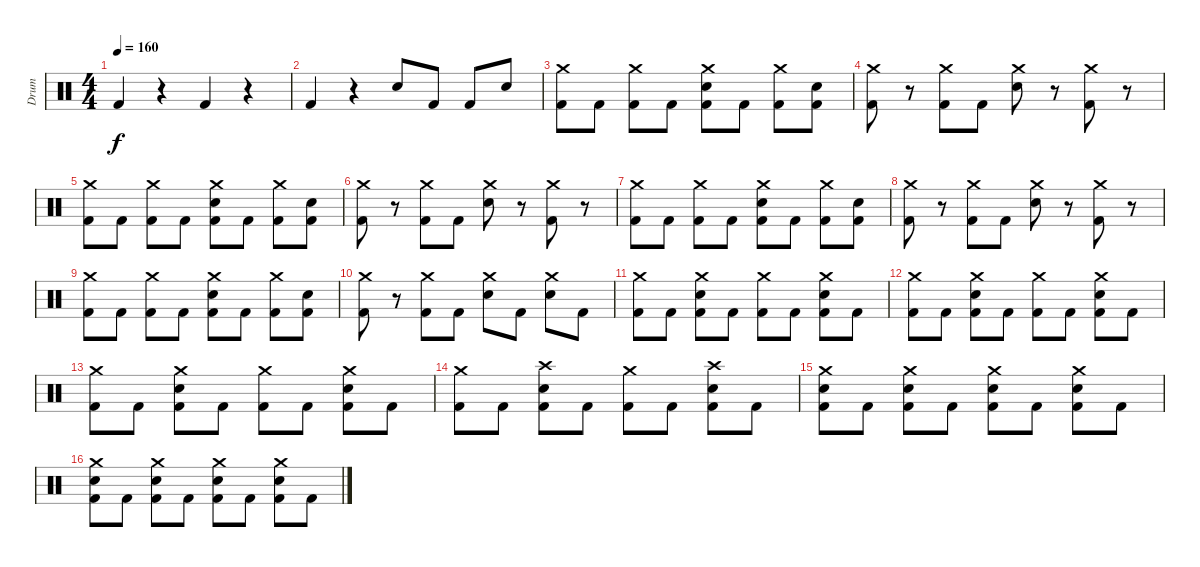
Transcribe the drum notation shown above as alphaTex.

\track ("Drum" "Drum") {instrument percussion}
\staff {score}
\articulation defaults
\ts (4 4)
\tempo 160
\clef neutral
\ks c "Kick (hit) 2".4{dy f}
r.4 "Kick (hit) 2".4 r.4 |
"Kick (hit) 2".4 r.4 "Electric Snare (hit)".8 "Kick (hit) 2".8 "Kick (hit) 2".8 "Electric Snare (hit)".8 |
("Crash medium (hit)" "Kick (hit) 2").8 "Kick (hit) 2".8 ("Crash medium (hit)" "Kick (hit) 2").8 "Kick (hit) 2".8 ("Crash medium (hit)" "Electric Snare (hit)" "Kick (hit) 2").8 "Kick (hit) 2".8 ("Crash medium (hit)" "Kick (hit) 2").8 ("Electric Snare (hit)" "Kick (hit) 2").8 |
("Crash medium (hit)" "Kick (hit) 2").8 r.8 ("Crash medium (hit)" "Kick (hit) 2").8 "Kick (hit) 2".8 ("Crash medium (hit)" "Electric Snare (hit)").8 r.8 ("Crash medium (hit)" "Kick (hit) 2").8 r.8 |
("Crash medium (hit)" "Kick (hit) 2").8 "Kick (hit) 2".8 ("Crash medium (hit)" "Kick (hit) 2").8 "Kick (hit) 2".8 ("Crash medium (hit)" "Electric Snare (hit)" "Kick (hit) 2").8 "Kick (hit) 2".8 ("Crash medium (hit)" "Kick (hit) 2").8 ("Electric Snare (hit)" "Kick (hit) 2").8 |
("Crash medium (hit)" "Kick (hit) 2").8 r.8 ("Crash medium (hit)" "Kick (hit) 2").8 "Kick (hit) 2".8 ("Crash medium (hit)" "Electric Snare (hit)").8 r.8 ("Crash medium (hit)" "Kick (hit) 2").8 r.8 |
("Crash medium (hit)" "Kick (hit) 2").8 "Kick (hit) 2".8 ("Crash medium (hit)" "Kick (hit) 2").8 "Kick (hit) 2".8 ("Crash medium (hit)" "Electric Snare (hit)" "Kick (hit) 2").8 "Kick (hit) 2".8 ("Crash medium (hit)" "Kick (hit) 2").8 ("Electric Snare (hit)" "Kick (hit) 2").8 |
("Crash medium (hit)" "Kick (hit) 2").8 r.8 ("Crash medium (hit)" "Kick (hit) 2").8 "Kick (hit) 2".8 ("Crash medium (hit)" "Electric Snare (hit)").8 r.8 ("Crash medium (hit)" "Kick (hit) 2").8 r.8 |
("Crash medium (hit)" "Kick (hit) 2").8 "Kick (hit) 2".8 ("Crash medium (hit)" "Kick (hit) 2").8 "Kick (hit) 2".8 ("Crash medium (hit)" "Electric Snare (hit)" "Kick (hit) 2").8 "Kick (hit) 2".8 ("Crash medium (hit)" "Kick (hit) 2").8 ("Electric Snare (hit)" "Kick (hit) 2").8 |
("Crash medium (hit)" "Kick (hit) 2").8 r.8 ("Crash medium (hit)" "Kick (hit) 2").8 "Kick (hit) 2".8 ("Crash medium (hit)" "Electric Snare (hit)").8 "Kick (hit) 2".8 ("Crash medium (hit)" "Electric Snare (hit)").8 "Kick (hit) 2".8 |
("Crash medium (hit)" "Kick (hit) 2").8 "Kick (hit) 2".8 ("Crash medium (hit)" "Electric Snare (hit)" "Kick (hit) 2").8 "Kick (hit) 2".8 ("Crash medium (hit)" "Kick (hit) 2").8 "Kick (hit) 2".8 ("Crash medium (hit)" "Electric Snare (hit)" "Kick (hit) 2").8 "Kick (hit) 2".8 |
("Crash medium (hit)" "Kick (hit) 2").8 "Kick (hit) 2".8 ("Crash medium (hit)" "Electric Snare (hit)" "Kick (hit) 2").8 "Kick (hit) 2".8 ("Crash medium (hit)" "Kick (hit) 2").8 "Kick (hit) 2".8 ("Crash medium (hit)" "Electric Snare (hit)" "Kick (hit) 2").8 "Kick (hit) 2".8 |
("Crash medium (hit)" "Kick (hit) 2").8 "Kick (hit) 2".8 ("Crash medium (hit)" "Electric Snare (hit)" "Kick (hit) 2").8 "Kick (hit) 2".8 ("Crash medium (hit)" "Kick (hit) 2").8 "Kick (hit) 2".8 ("Crash medium (hit)" "Electric Snare (hit)" "Kick (hit) 2").8 "Kick (hit) 2".8 |
("Crash medium (hit)" "Kick (hit) 2").8 "Kick (hit) 2".8 ("Crash high (hit)" "Electric Snare (hit)" "Kick (hit) 2").8 "Kick (hit) 2".8 ("Crash medium (hit)" "Kick (hit) 2").8 "Kick (hit) 2".8 ("Crash high (hit)" "Electric Snare (hit)" "Kick (hit) 2").8 "Kick (hit) 2".8 |
("Crash medium (hit)" "Electric Snare (hit)" "Kick (hit) 2").8 "Kick (hit) 2".8 ("Crash medium (hit)" "Electric Snare (hit)" "Kick (hit) 2").8 "Kick (hit) 2".8 ("Crash medium (hit)" "Electric Snare (hit)" "Kick (hit) 2").8 "Kick (hit) 2".8 ("Crash medium (hit)" "Electric Snare (hit)" "Kick (hit) 2").8 "Kick (hit) 2".8 |
("Crash medium (hit)" "Electric Snare (hit)" "Kick (hit) 2").8 "Kick (hit) 2".8 ("Crash medium (hit)" "Electric Snare (hit)" "Kick (hit) 2").8 "Kick (hit) 2".8 ("Crash medium (hit)" "Electric Snare (hit)" "Kick (hit) 2").8 "Kick (hit) 2".8 ("Crash medium (hit)" "Electric Snare (hit)" "Kick (hit) 2").8 "Kick (hit) 2".8
